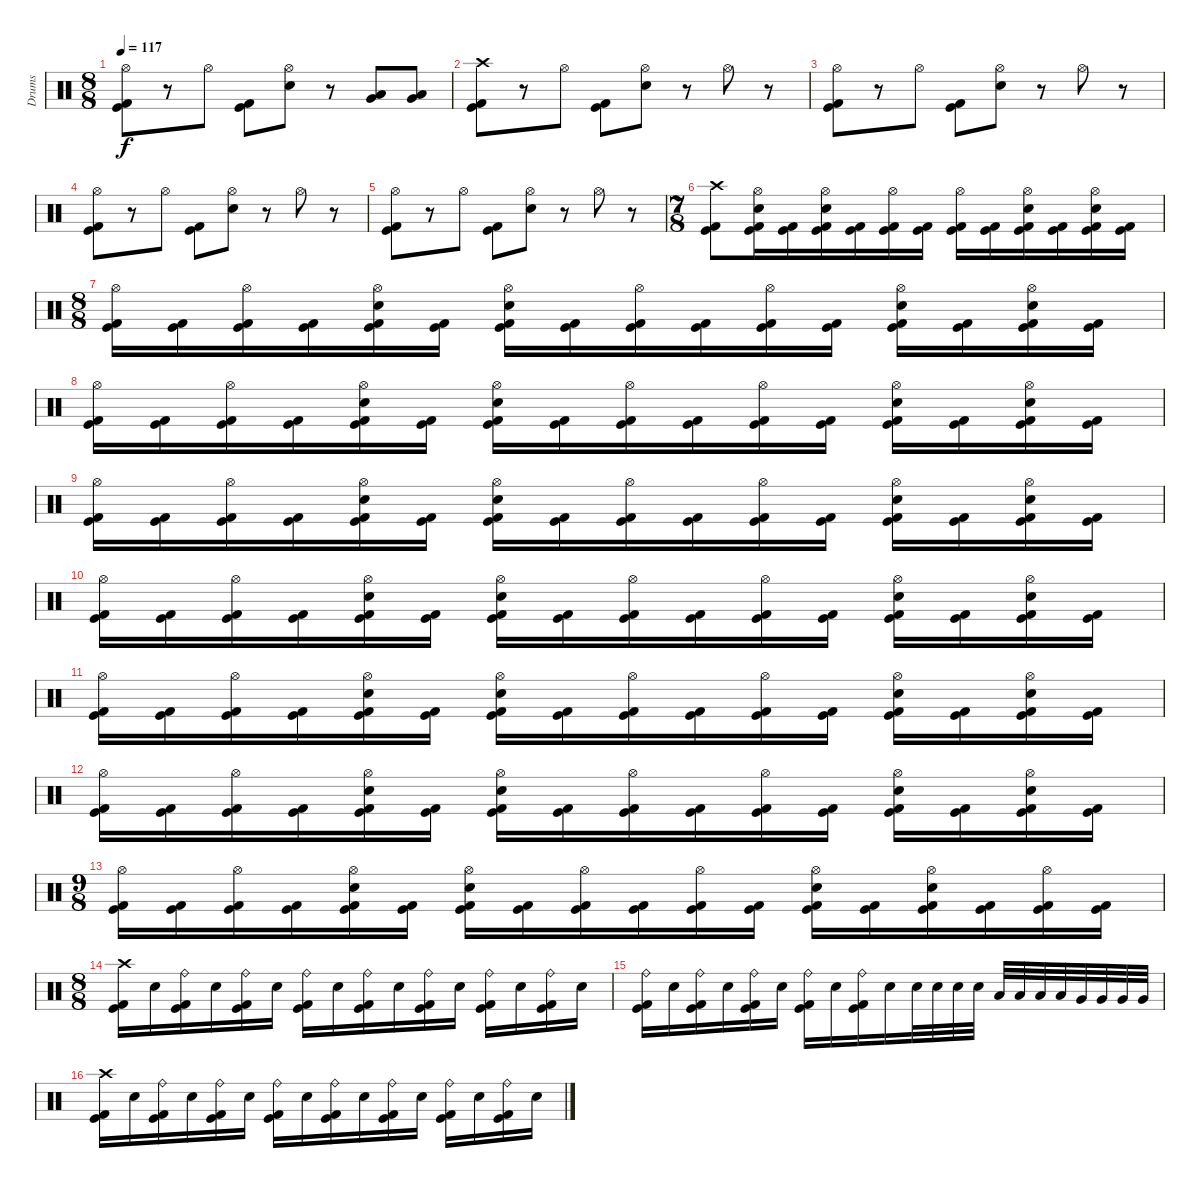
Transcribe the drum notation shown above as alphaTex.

\track ("Drums" "Drums") {instrument percussion}
\staff {score}
\articulation defaults
\ts (8 8)
\tempo 117
\clef neutral
\ks c
("Hi-Hat (open)" "Kick (hit)" "Kick (hit) 2").8{dy f} r.8 "Hi-Hat (open)".8 ("Kick (hit)" "Kick (hit) 2").8 ("Hi-Hat (open)" "Electric Snare (hit)").8 r.8 ("Very Low Tom (hit)" "Low Tom (hit)").8 ("Very Low Tom (hit)" "Low Tom (hit)").8 |
("Crash high (hit)" "Kick (hit)" "Kick (hit) 2").8 r.8 "Hi-Hat (open)".8 ("Kick (hit)" "Kick (hit) 2").8 ("Hi-Hat (open)" "Electric Snare (hit)").8 r.8 "Hi-Hat (open)".8 r.8 |
("Hi-Hat (open)" "Kick (hit)" "Kick (hit) 2").8 r.8 "Hi-Hat (open)".8 ("Kick (hit)" "Kick (hit) 2").8 ("Hi-Hat (open)" "Electric Snare (hit)").8 r.8 "Hi-Hat (open)".8 r.8 |
("Hi-Hat (open)" "Kick (hit)" "Kick (hit) 2").8 r.8 "Hi-Hat (open)".8 ("Kick (hit)" "Kick (hit) 2").8 ("Hi-Hat (open)" "Electric Snare (hit)").8 r.8 "Hi-Hat (open)".8 r.8 |
("Hi-Hat (open)" "Kick (hit)" "Kick (hit) 2").8 r.8 "Hi-Hat (open)".8 ("Kick (hit)" "Kick (hit) 2").8 ("Hi-Hat (open)" "Electric Snare (hit)").8 r.8 "Hi-Hat (open)".8 r.8 |
\ts (7 8)
("Crash high (hit)" "Kick (hit)" "Kick (hit) 2").8 ("Hi-Hat (open)" "Electric Snare (hit)" "Kick (hit)" "Kick (hit) 2").16 ("Kick (hit)" "Kick (hit) 2").16 ("Hi-Hat (open)" "Electric Snare (hit)" "Kick (hit)" "Kick (hit) 2").16 ("Kick (hit)" "Kick (hit) 2").16 ("Hi-Hat (open)" "Kick (hit)" "Kick (hit) 2").16 ("Kick (hit)" "Kick (hit) 2").16 ("Hi-Hat (open)" "Kick (hit)" "Kick (hit) 2").16 ("Kick (hit)" "Kick (hit) 2").16 ("Hi-Hat (open)" "Electric Snare (hit)" "Kick (hit)" "Kick (hit) 2").16 ("Kick (hit)" "Kick (hit) 2").16 ("Hi-Hat (open)" "Electric Snare (hit)" "Kick (hit)" "Kick (hit) 2").16 ("Kick (hit)" "Kick (hit) 2").16 |
\ts (8 8)
("Hi-Hat (open)" "Kick (hit)" "Kick (hit) 2").16 ("Kick (hit)" "Kick (hit) 2").16 ("Hi-Hat (open)" "Kick (hit)" "Kick (hit) 2").16 ("Kick (hit)" "Kick (hit) 2").16 ("Hi-Hat (open)" "Electric Snare (hit)" "Kick (hit)" "Kick (hit) 2").16 ("Kick (hit)" "Kick (hit) 2").16 ("Hi-Hat (open)" "Electric Snare (hit)" "Kick (hit)" "Kick (hit) 2").16 ("Kick (hit)" "Kick (hit) 2").16 ("Hi-Hat (open)" "Kick (hit)" "Kick (hit) 2").16 ("Kick (hit)" "Kick (hit) 2").16 ("Hi-Hat (open)" "Kick (hit)" "Kick (hit) 2").16 ("Kick (hit)" "Kick (hit) 2").16 ("Hi-Hat (open)" "Electric Snare (hit)" "Kick (hit)" "Kick (hit) 2").16 ("Kick (hit)" "Kick (hit) 2").16 ("Hi-Hat (open)" "Electric Snare (hit)" "Kick (hit)" "Kick (hit) 2").16 ("Kick (hit)" "Kick (hit) 2").16 |
("Hi-Hat (open)" "Kick (hit)" "Kick (hit) 2").16 ("Kick (hit)" "Kick (hit) 2").16 ("Hi-Hat (open)" "Kick (hit)" "Kick (hit) 2").16 ("Kick (hit)" "Kick (hit) 2").16 ("Hi-Hat (open)" "Electric Snare (hit)" "Kick (hit)" "Kick (hit) 2").16 ("Kick (hit)" "Kick (hit) 2").16 ("Hi-Hat (open)" "Electric Snare (hit)" "Kick (hit)" "Kick (hit) 2").16 ("Kick (hit)" "Kick (hit) 2").16 ("Hi-Hat (open)" "Kick (hit)" "Kick (hit) 2").16 ("Kick (hit)" "Kick (hit) 2").16 ("Hi-Hat (open)" "Kick (hit)" "Kick (hit) 2").16 ("Kick (hit)" "Kick (hit) 2").16 ("Hi-Hat (open)" "Electric Snare (hit)" "Kick (hit)" "Kick (hit) 2").16 ("Kick (hit)" "Kick (hit) 2").16 ("Hi-Hat (open)" "Electric Snare (hit)" "Kick (hit)" "Kick (hit) 2").16 ("Kick (hit)" "Kick (hit) 2").16 |
("Hi-Hat (open)" "Kick (hit)" "Kick (hit) 2").16 ("Kick (hit)" "Kick (hit) 2").16 ("Hi-Hat (open)" "Kick (hit)" "Kick (hit) 2").16 ("Kick (hit)" "Kick (hit) 2").16 ("Hi-Hat (open)" "Electric Snare (hit)" "Kick (hit)" "Kick (hit) 2").16 ("Kick (hit)" "Kick (hit) 2").16 ("Hi-Hat (open)" "Electric Snare (hit)" "Kick (hit)" "Kick (hit) 2").16 ("Kick (hit)" "Kick (hit) 2").16 ("Hi-Hat (open)" "Kick (hit)" "Kick (hit) 2").16 ("Kick (hit)" "Kick (hit) 2").16 ("Hi-Hat (open)" "Kick (hit)" "Kick (hit) 2").16 ("Kick (hit)" "Kick (hit) 2").16 ("Hi-Hat (open)" "Electric Snare (hit)" "Kick (hit)" "Kick (hit) 2").16 ("Kick (hit)" "Kick (hit) 2").16 ("Hi-Hat (open)" "Electric Snare (hit)" "Kick (hit)" "Kick (hit) 2").16 ("Kick (hit)" "Kick (hit) 2").16 |
("Hi-Hat (open)" "Kick (hit)" "Kick (hit) 2").16 ("Kick (hit)" "Kick (hit) 2").16 ("Hi-Hat (open)" "Kick (hit)" "Kick (hit) 2").16 ("Kick (hit)" "Kick (hit) 2").16 ("Hi-Hat (open)" "Electric Snare (hit)" "Kick (hit)" "Kick (hit) 2").16 ("Kick (hit)" "Kick (hit) 2").16 ("Hi-Hat (open)" "Electric Snare (hit)" "Kick (hit)" "Kick (hit) 2").16 ("Kick (hit)" "Kick (hit) 2").16 ("Hi-Hat (open)" "Kick (hit)" "Kick (hit) 2").16 ("Kick (hit)" "Kick (hit) 2").16 ("Hi-Hat (open)" "Kick (hit)" "Kick (hit) 2").16 ("Kick (hit)" "Kick (hit) 2").16 ("Hi-Hat (open)" "Electric Snare (hit)" "Kick (hit)" "Kick (hit) 2").16 ("Kick (hit)" "Kick (hit) 2").16 ("Hi-Hat (open)" "Electric Snare (hit)" "Kick (hit)" "Kick (hit) 2").16 ("Kick (hit)" "Kick (hit) 2").16 |
("Hi-Hat (open)" "Kick (hit)" "Kick (hit) 2").16 ("Kick (hit)" "Kick (hit) 2").16 ("Hi-Hat (open)" "Kick (hit)" "Kick (hit) 2").16 ("Kick (hit)" "Kick (hit) 2").16 ("Hi-Hat (open)" "Electric Snare (hit)" "Kick (hit)" "Kick (hit) 2").16 ("Kick (hit)" "Kick (hit) 2").16 ("Hi-Hat (open)" "Electric Snare (hit)" "Kick (hit)" "Kick (hit) 2").16 ("Kick (hit)" "Kick (hit) 2").16 ("Hi-Hat (open)" "Kick (hit)" "Kick (hit) 2").16 ("Kick (hit)" "Kick (hit) 2").16 ("Hi-Hat (open)" "Kick (hit)" "Kick (hit) 2").16 ("Kick (hit)" "Kick (hit) 2").16 ("Hi-Hat (open)" "Electric Snare (hit)" "Kick (hit)" "Kick (hit) 2").16 ("Kick (hit)" "Kick (hit) 2").16 ("Hi-Hat (open)" "Electric Snare (hit)" "Kick (hit)" "Kick (hit) 2").16 ("Kick (hit)" "Kick (hit) 2").16 |
("Hi-Hat (open)" "Kick (hit)" "Kick (hit) 2").16 ("Kick (hit)" "Kick (hit) 2").16 ("Hi-Hat (open)" "Kick (hit)" "Kick (hit) 2").16 ("Kick (hit)" "Kick (hit) 2").16 ("Hi-Hat (open)" "Electric Snare (hit)" "Kick (hit)" "Kick (hit) 2").16 ("Kick (hit)" "Kick (hit) 2").16 ("Hi-Hat (open)" "Electric Snare (hit)" "Kick (hit)" "Kick (hit) 2").16 ("Kick (hit)" "Kick (hit) 2").16 ("Hi-Hat (open)" "Kick (hit)" "Kick (hit) 2").16 ("Kick (hit)" "Kick (hit) 2").16 ("Hi-Hat (open)" "Kick (hit)" "Kick (hit) 2").16 ("Kick (hit)" "Kick (hit) 2").16 ("Hi-Hat (open)" "Electric Snare (hit)" "Kick (hit)" "Kick (hit) 2").16 ("Kick (hit)" "Kick (hit) 2").16 ("Hi-Hat (open)" "Electric Snare (hit)" "Kick (hit)" "Kick (hit) 2").16 ("Kick (hit)" "Kick (hit) 2").16 |
\ts (9 8)
("Hi-Hat (open)" "Kick (hit)" "Kick (hit) 2").16 ("Kick (hit)" "Kick (hit) 2").16 ("Hi-Hat (open)" "Kick (hit)" "Kick (hit) 2").16 ("Kick (hit)" "Kick (hit) 2").16 ("Hi-Hat (open)" "Electric Snare (hit)" "Kick (hit)" "Kick (hit) 2").16 ("Kick (hit)" "Kick (hit) 2").16 ("Hi-Hat (open)" "Electric Snare (hit)" "Kick (hit)" "Kick (hit) 2").16 ("Kick (hit)" "Kick (hit) 2").16 ("Hi-Hat (open)" "Kick (hit)" "Kick (hit) 2").16 ("Kick (hit)" "Kick (hit) 2").16 ("Hi-Hat (open)" "Kick (hit)" "Kick (hit) 2").16 ("Kick (hit)" "Kick (hit) 2").16 ("Hi-Hat (open)" "Electric Snare (hit)" "Kick (hit)" "Kick (hit) 2").16 ("Kick (hit)" "Kick (hit) 2").16 ("Hi-Hat (open)" "Electric Snare (hit)" "Kick (hit)" "Kick (hit) 2").16 ("Kick (hit)" "Kick (hit) 2").16 ("Hi-Hat (open)" "Kick (hit)" "Kick (hit) 2").16 ("Kick (hit)" "Kick (hit) 2").16 |
\ts (8 8)
("Crash high (hit)" "Kick (hit)" "Kick (hit) 2").16 "Electric Snare (hit)".16 ("Ride (bell)" "Kick (hit)" "Kick (hit) 2").16 "Electric Snare (hit)".16 ("Ride (bell)" "Kick (hit)" "Kick (hit) 2").16 "Electric Snare (hit)".16 ("Ride (bell)" "Kick (hit)" "Kick (hit) 2").16 "Electric Snare (hit)".16 ("Ride (bell)" "Kick (hit)" "Kick (hit) 2").16 "Electric Snare (hit)".16 ("Ride (bell)" "Kick (hit)" "Kick (hit) 2").16 "Electric Snare (hit)".16 ("Ride (bell)" "Kick (hit)" "Kick (hit) 2").16 "Electric Snare (hit)".16 ("Ride (bell)" "Kick (hit)" "Kick (hit) 2").16 "Electric Snare (hit)".16 |
("Ride (bell)" "Kick (hit)" "Kick (hit) 2").16 "Electric Snare (hit)".16 ("Ride (bell)" "Kick (hit)" "Kick (hit) 2").16 "Electric Snare (hit)".16 ("Ride (bell)" "Kick (hit)" "Kick (hit) 2").16 "Electric Snare (hit)".16 ("Ride (bell)" "Kick (hit)" "Kick (hit) 2").16 "Electric Snare (hit)".16 ("Ride (bell)" "Kick (hit)" "Kick (hit) 2").16 "Electric Snare (hit)".16 "Electric Snare (hit)".32 "Electric Snare (hit)".32 "Electric Snare (hit)".32 "Electric Snare (hit)".32 "Low Tom (hit)".32 "Low Tom (hit)".32 "Low Tom (hit)".32 "Low Tom (hit)".32 "Very Low Tom (hit)".32 "Very Low Tom (hit)".32 "Very Low Tom (hit)".32 "Very Low Tom (hit)".32 |
("Crash high (hit)" "Kick (hit)" "Kick (hit) 2").16 "Electric Snare (hit)".16 ("Ride (bell)" "Kick (hit)" "Kick (hit) 2").16 "Electric Snare (hit)".16 ("Ride (bell)" "Kick (hit)" "Kick (hit) 2").16 "Electric Snare (hit)".16 ("Ride (bell)" "Kick (hit)" "Kick (hit) 2").16 "Electric Snare (hit)".16 ("Ride (bell)" "Kick (hit)" "Kick (hit) 2").16 "Electric Snare (hit)".16 ("Ride (bell)" "Kick (hit)" "Kick (hit) 2").16 "Electric Snare (hit)".16 ("Ride (bell)" "Kick (hit)" "Kick (hit) 2").16 "Electric Snare (hit)".16 ("Ride (bell)" "Kick (hit)" "Kick (hit) 2").16 "Electric Snare (hit)".16
